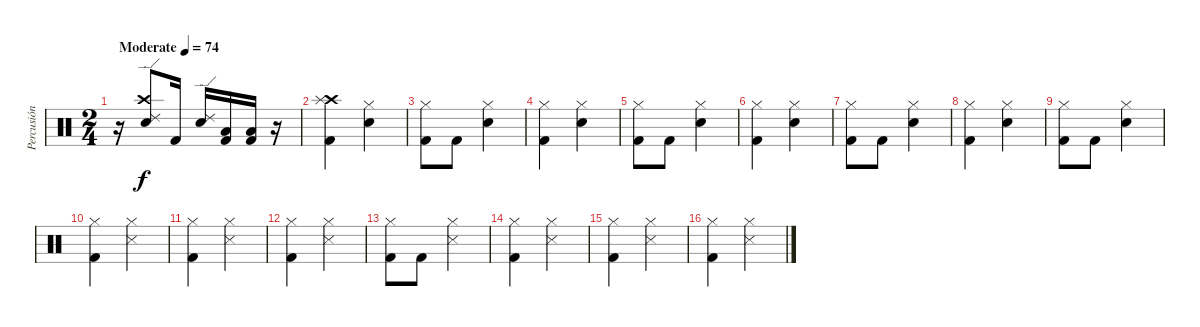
\track ("Percusión" "Percusión") {instrument percussion}
\staff {score}
\articulation defaults
\ts (2 4)
\tempo (74 "Moderate")
\clef neutral
\ks c
r.16{dy f} ("Ride (edge) 2" "Crash high (hit)" "Electric Snare (hit)").8 "Kick (hit) 2".16 ("Ride (edge) 2" "Electric Snare (hit)").16 ("Low Tom (hit)" "Kick (hit) 2").16 ("Low Tom (hit)" "Kick (hit) 2").16 r.16 |
("Crash high (hit)" "Splash (hit)" "Kick (hit) 2").4 ("Hi-Hat (closed)" "Electric Snare (hit)").4 |
("Hi-Hat (closed)" "Kick (hit) 2").8 "Kick (hit) 2".8 ("Hi-Hat (closed)" "Electric Snare (hit)").4 |
("Hi-Hat (closed)" "Kick (hit) 2").4 ("Hi-Hat (closed)" "Electric Snare (hit)").4 |
("Hi-Hat (closed)" "Kick (hit) 2").8 "Kick (hit) 2".8 ("Hi-Hat (closed)" "Electric Snare (hit)").4 |
("Hi-Hat (closed)" "Kick (hit) 2").4 ("Hi-Hat (closed)" "Electric Snare (hit)").4 |
("Hi-Hat (closed)" "Kick (hit) 2").8 "Kick (hit) 2".8 ("Hi-Hat (closed)" "Electric Snare (hit)").4 |
("Hi-Hat (closed)" "Kick (hit) 2").4 ("Hi-Hat (closed)" "Electric Snare (hit)").4 |
("Hi-Hat (closed)" "Kick (hit) 2").8 "Kick (hit) 2".8 ("Hi-Hat (closed)" "Electric Snare (hit)").4 |
("Hi-Hat (closed)" "Kick (hit) 2").4 ("Hi-Hat (closed)" "Snare (side stick) 3").4 |
("Hi-Hat (closed)" "Kick (hit) 2").4 ("Hi-Hat (closed)" "Snare (side stick) 3").4 |
("Hi-Hat (closed)" "Kick (hit) 2").4 ("Hi-Hat (closed)" "Snare (side stick) 3").4 |
("Hi-Hat (closed)" "Kick (hit) 2").8 "Kick (hit) 2".8 ("Hi-Hat (closed)" "Snare (side stick) 3").4 |
("Hi-Hat (closed)" "Kick (hit) 2").4 ("Hi-Hat (closed)" "Snare (side stick) 3").4 |
("Hi-Hat (closed)" "Kick (hit) 2").4 ("Hi-Hat (closed)" "Snare (side stick) 3").4 |
("Hi-Hat (closed)" "Kick (hit) 2").4 ("Hi-Hat (closed)" "Snare (side stick) 3").4
